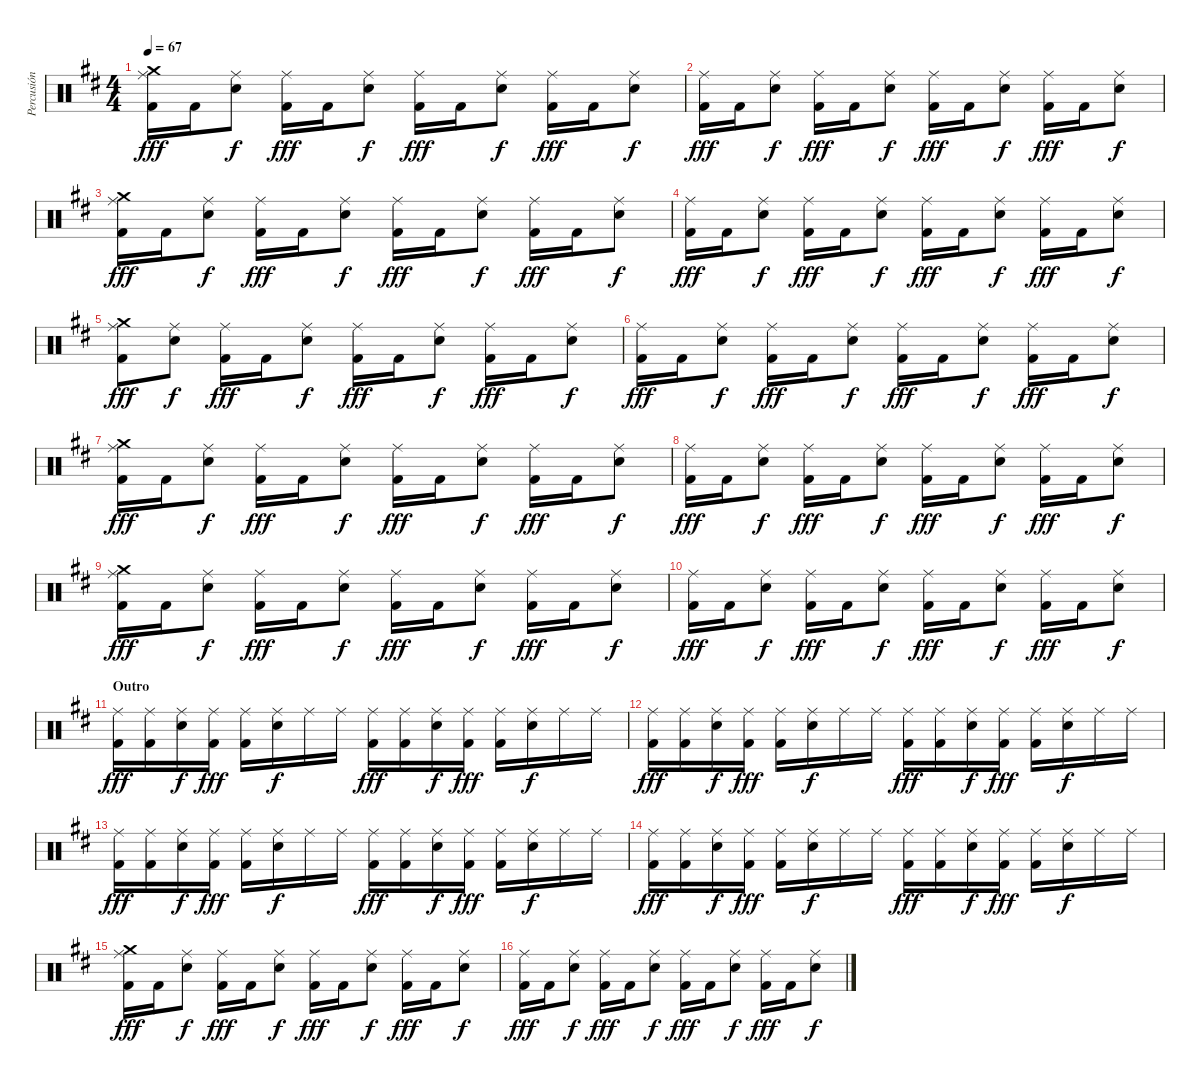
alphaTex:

\track ("Percusión" "Percusión") {instrument percussion}
\staff {score}
\articulation defaults
\ts (4 4)
\tempo 67
\clef neutral
\ks bminor
("Ride (middle)" "Kick (hit) 2" "Crash medium (hit)").16{dy fff} "Kick (hit) 2".16 ("Snare (hit) 2" "Ride (middle)").8{dy f} ("Ride (middle)" "Kick (hit) 2").16{dy fff} "Kick (hit) 2".16 ("Snare (hit) 2" "Ride (middle)").8{dy f} ("Ride (middle)" "Kick (hit) 2").16{dy fff} "Kick (hit) 2".16 ("Snare (hit) 2" "Ride (middle)").8{dy f} ("Ride (middle)" "Kick (hit) 2").16{dy fff} "Kick (hit) 2".16 ("Snare (hit) 2" "Ride (middle)").8{dy f} |
("Ride (middle)" "Kick (hit) 2").16{dy fff} "Kick (hit) 2".16 ("Snare (hit) 2" "Ride (middle)").8{dy f} ("Ride (middle)" "Kick (hit) 2").16{dy fff} "Kick (hit) 2".16 ("Snare (hit) 2" "Ride (middle)").8{dy f} ("Ride (middle)" "Kick (hit) 2").16{dy fff} "Kick (hit) 2".16 ("Snare (hit) 2" "Ride (middle)").8{dy f} ("Ride (middle)" "Kick (hit) 2").16{dy fff} "Kick (hit) 2".16 ("Snare (hit) 2" "Ride (middle)").8{dy f} |
("Ride (middle)" "Kick (hit) 2" "Crash medium (hit)").16{dy fff} "Kick (hit) 2".16 ("Snare (hit) 2" "Ride (middle)").8{dy f} ("Ride (middle)" "Kick (hit) 2").16{dy fff} "Kick (hit) 2".16 ("Snare (hit) 2" "Ride (middle)").8{dy f} ("Ride (middle)" "Kick (hit) 2").16{dy fff} "Kick (hit) 2".16 ("Snare (hit) 2" "Ride (middle)").8{dy f} ("Ride (middle)" "Kick (hit) 2").16{dy fff} "Kick (hit) 2".16 ("Snare (hit) 2" "Ride (middle)").8{dy f} |
("Ride (middle)" "Kick (hit) 2").16{dy fff} "Kick (hit) 2".16 ("Snare (hit) 2" "Ride (middle)").8{dy f} ("Ride (middle)" "Kick (hit) 2").16{dy fff} "Kick (hit) 2".16 ("Snare (hit) 2" "Ride (middle)").8{dy f} ("Ride (middle)" "Kick (hit) 2").16{dy fff} "Kick (hit) 2".16 ("Snare (hit) 2" "Ride (middle)").8{dy f} ("Ride (middle)" "Kick (hit) 2").16{dy fff} "Kick (hit) 2".16 ("Snare (hit) 2" "Ride (middle)").8{dy f} |
("Ride (middle)" "Kick (hit) 2" "Crash medium (hit)").8{dy fff} ("Snare (hit) 2" "Ride (middle)").8{dy f} ("Ride (middle)" "Kick (hit) 2").16{dy fff} "Kick (hit) 2".16 ("Snare (hit) 2" "Ride (middle)").8{dy f} ("Ride (middle)" "Kick (hit) 2").16{dy fff} "Kick (hit) 2".16 ("Snare (hit) 2" "Ride (middle)").8{dy f} ("Ride (middle)" "Kick (hit) 2").16{dy fff} "Kick (hit) 2".16 ("Snare (hit) 2" "Ride (middle)").8{dy f} |
("Ride (middle)" "Kick (hit) 2").16{dy fff} "Kick (hit) 2".16 ("Snare (hit) 2" "Ride (middle)").8{dy f} ("Ride (middle)" "Kick (hit) 2").16{dy fff} "Kick (hit) 2".16 ("Snare (hit) 2" "Ride (middle)").8{dy f} ("Ride (middle)" "Kick (hit) 2").16{dy fff} "Kick (hit) 2".16 ("Snare (hit) 2" "Ride (middle)").8{dy f} ("Ride (middle)" "Kick (hit) 2").16{dy fff} "Kick (hit) 2".16 ("Snare (hit) 2" "Ride (middle)").8{dy f} |
("Ride (middle)" "Kick (hit) 2" "Crash medium (hit)").16{dy fff} "Kick (hit) 2".16 ("Snare (hit) 2" "Ride (middle)").8{dy f} ("Ride (middle)" "Kick (hit) 2").16{dy fff} "Kick (hit) 2".16 ("Snare (hit) 2" "Ride (middle)").8{dy f} ("Ride (middle)" "Kick (hit) 2").16{dy fff} "Kick (hit) 2".16 ("Snare (hit) 2" "Ride (middle)").8{dy f} ("Ride (middle)" "Kick (hit) 2").16{dy fff} "Kick (hit) 2".16 ("Snare (hit) 2" "Ride (middle)").8{dy f} |
("Ride (middle)" "Kick (hit) 2").16{dy fff} "Kick (hit) 2".16 ("Snare (hit) 2" "Ride (middle)").8{dy f} ("Ride (middle)" "Kick (hit) 2").16{dy fff} "Kick (hit) 2".16 ("Snare (hit) 2" "Ride (middle)").8{dy f} ("Ride (middle)" "Kick (hit) 2").16{dy fff} "Kick (hit) 2".16 ("Snare (hit) 2" "Ride (middle)").8{dy f} ("Ride (middle)" "Kick (hit) 2").16{dy fff} "Kick (hit) 2".16 ("Snare (hit) 2" "Ride (middle)").8{dy f} |
("Ride (middle)" "Kick (hit) 2" "Crash medium (hit)").16{dy fff} "Kick (hit) 2".16 ("Snare (hit) 2" "Ride (middle)").8{dy f} ("Ride (middle)" "Kick (hit) 2").16{dy fff} "Kick (hit) 2".16 ("Snare (hit) 2" "Ride (middle)").8{dy f} ("Ride (middle)" "Kick (hit) 2").16{dy fff} "Kick (hit) 2".16 ("Snare (hit) 2" "Ride (middle)").8{dy f} ("Ride (middle)" "Kick (hit) 2").16{dy fff} "Kick (hit) 2".16 ("Snare (hit) 2" "Ride (middle)").8{dy f} |
("Ride (middle)" "Kick (hit) 2").16{dy fff} "Kick (hit) 2".16 ("Snare (hit) 2" "Ride (middle)").8{dy f} ("Ride (middle)" "Kick (hit) 2").16{dy fff} "Kick (hit) 2".16 ("Snare (hit) 2" "Ride (middle)").8{dy f} ("Ride (middle)" "Kick (hit) 2").16{dy fff} "Kick (hit) 2".16 ("Snare (hit) 2" "Ride (middle)").8{dy f} ("Ride (middle)" "Kick (hit) 2").16{dy fff} "Kick (hit) 2".16 ("Snare (hit) 2" "Ride (middle)").8{dy f} |
\section ("" "Outro")
("Ride (middle)" "Kick (hit) 2").16{dy fff} ("Ride (middle)" "Kick (hit) 2").16 ("Snare (hit) 2" "Ride (middle)").16{dy f} ("Ride (middle)" "Kick (hit) 2").16{dy fff} ("Ride (middle)" "Kick (hit) 2").16 ("Snare (hit) 2" "Ride (middle)").16{dy f} "Ride (middle)".16 "Ride (middle)".16 ("Ride (middle)" "Kick (hit) 2").16{dy fff} ("Ride (middle)" "Kick (hit) 2").16 ("Snare (hit) 2" "Ride (middle)").16{dy f} ("Ride (middle)" "Kick (hit) 2").16{dy fff} ("Ride (middle)" "Kick (hit) 2").16 ("Snare (hit) 2" "Ride (middle)").16{dy f} "Ride (middle)".16 "Ride (middle)".16 |
("Ride (middle)" "Kick (hit) 2").16{dy fff} ("Ride (middle)" "Kick (hit) 2").16 ("Snare (hit) 2" "Ride (middle)").16{dy f} ("Ride (middle)" "Kick (hit) 2").16{dy fff} ("Ride (middle)" "Kick (hit) 2").16 ("Snare (hit) 2" "Ride (middle)").16{dy f} "Ride (middle)".16 "Ride (middle)".16 ("Ride (middle)" "Kick (hit) 2").16{dy fff} ("Ride (middle)" "Kick (hit) 2").16 ("Snare (hit) 2" "Ride (middle)").16{dy f} ("Ride (middle)" "Kick (hit) 2").16{dy fff} ("Ride (middle)" "Kick (hit) 2").16 ("Snare (hit) 2" "Ride (middle)").16{dy f} "Ride (middle)".16 "Ride (middle)".16 |
("Ride (middle)" "Kick (hit) 2").16{dy fff} ("Ride (middle)" "Kick (hit) 2").16 ("Snare (hit) 2" "Ride (middle)").16{dy f} ("Ride (middle)" "Kick (hit) 2").16{dy fff} ("Ride (middle)" "Kick (hit) 2").16 ("Snare (hit) 2" "Ride (middle)").16{dy f} "Ride (middle)".16 "Ride (middle)".16 ("Ride (middle)" "Kick (hit) 2").16{dy fff} ("Ride (middle)" "Kick (hit) 2").16 ("Snare (hit) 2" "Ride (middle)").16{dy f} ("Ride (middle)" "Kick (hit) 2").16{dy fff} ("Ride (middle)" "Kick (hit) 2").16 ("Snare (hit) 2" "Ride (middle)").16{dy f} "Ride (middle)".16 "Ride (middle)".16 |
("Ride (middle)" "Kick (hit) 2").16{dy fff} ("Ride (middle)" "Kick (hit) 2").16 ("Snare (hit) 2" "Ride (middle)").16{dy f} ("Ride (middle)" "Kick (hit) 2").16{dy fff} ("Ride (middle)" "Kick (hit) 2").16 ("Snare (hit) 2" "Ride (middle)").16{dy f} "Ride (middle)".16 "Ride (middle)".16 ("Ride (middle)" "Kick (hit) 2").16{dy fff} ("Ride (middle)" "Kick (hit) 2").16 ("Snare (hit) 2" "Ride (middle)").16{dy f} ("Ride (middle)" "Kick (hit) 2").16{dy fff} ("Ride (middle)" "Kick (hit) 2").16 ("Snare (hit) 2" "Ride (middle)").16{dy f} "Ride (middle)".16 "Ride (middle)".16 |
("Ride (middle)" "Kick (hit) 2" "Crash medium (hit)").16{dy fff} "Kick (hit) 2".16 ("Snare (hit) 2" "Ride (middle)").8{dy f} ("Ride (middle)" "Kick (hit) 2").16{dy fff} "Kick (hit) 2".16 ("Snare (hit) 2" "Ride (middle)").8{dy f} ("Ride (middle)" "Kick (hit) 2").16{dy fff} "Kick (hit) 2".16 ("Snare (hit) 2" "Ride (middle)").8{dy f} ("Ride (middle)" "Kick (hit) 2").16{dy fff} "Kick (hit) 2".16 ("Snare (hit) 2" "Ride (middle)").8{dy f} |
("Ride (middle)" "Kick (hit) 2").16{dy fff} "Kick (hit) 2".16 ("Snare (hit) 2" "Ride (middle)").8{dy f} ("Ride (middle)" "Kick (hit) 2").16{dy fff} "Kick (hit) 2".16 ("Snare (hit) 2" "Ride (middle)").8{dy f} ("Ride (middle)" "Kick (hit) 2").16{dy fff} "Kick (hit) 2".16 ("Snare (hit) 2" "Ride (middle)").8{dy f} ("Ride (middle)" "Kick (hit) 2").16{dy fff} "Kick (hit) 2".16 ("Snare (hit) 2" "Ride (middle)").8{dy f}
